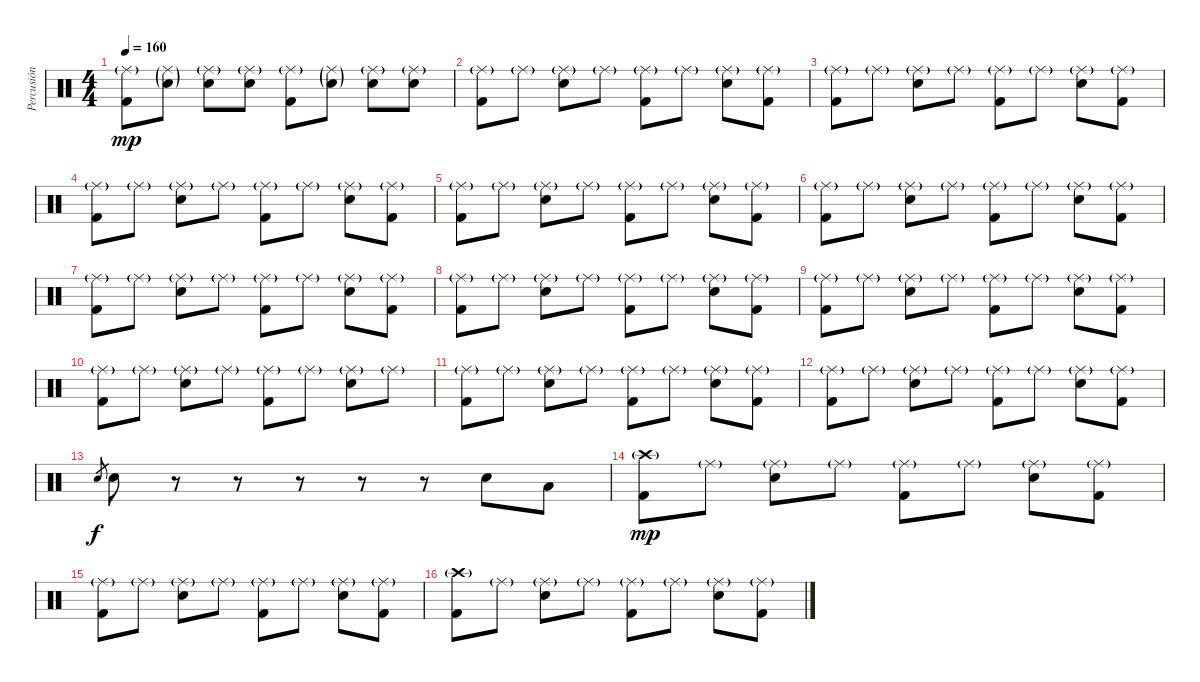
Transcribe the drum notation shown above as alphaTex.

\track ("Percusión" "Percusión") {instrument percussion}
\staff {score}
\articulation defaults
\ts (4 4)
\tempo 160
\clef neutral
\ks c
("Ride (middle)"{g} "Kick (hit) 2").8{dy mp} ("Ride (middle)"{g} "Electric Snare (hit)"{g}).8 ("Ride (middle)"{g} "Electric Snare (hit)").8 ("Ride (middle)"{g} "Electric Snare (hit)").8 ("Ride (middle)"{g} "Kick (hit) 2").8 ("Ride (middle)"{g} "Electric Snare (hit)"{g}).8 ("Ride (middle)"{g} "Electric Snare (hit)").8 ("Ride (middle)"{g} "Electric Snare (hit)").8 |
("Ride (middle)"{g} "Kick (hit) 2").8 "Ride (middle)"{g}.8 ("Ride (middle)"{g} "Electric Snare (hit)").8 "Ride (middle)"{g}.8 ("Ride (middle)"{g} "Kick (hit) 2").8 "Ride (middle)"{g}.8 ("Ride (middle)"{g} "Electric Snare (hit)").8 ("Ride (middle)"{g} "Kick (hit) 2").8 |
("Ride (middle)"{g} "Kick (hit) 2").8 "Ride (middle)"{g}.8 ("Ride (middle)"{g} "Electric Snare (hit)").8 "Ride (middle)"{g}.8 ("Ride (middle)"{g} "Kick (hit) 2").8 "Ride (middle)"{g}.8 ("Ride (middle)"{g} "Electric Snare (hit)").8 ("Ride (middle)"{g} "Kick (hit) 2").8 |
("Ride (middle)"{g} "Kick (hit) 2").8 "Ride (middle)"{g}.8 ("Ride (middle)"{g} "Electric Snare (hit)").8 "Ride (middle)"{g}.8 ("Ride (middle)"{g} "Kick (hit) 2").8 "Ride (middle)"{g}.8 ("Ride (middle)"{g} "Electric Snare (hit)").8 ("Ride (middle)"{g} "Kick (hit) 2").8 |
("Ride (middle)"{g} "Kick (hit) 2").8 "Ride (middle)"{g}.8 ("Ride (middle)"{g} "Electric Snare (hit)").8 "Ride (middle)"{g}.8 ("Ride (middle)"{g} "Kick (hit) 2").8 "Ride (middle)"{g}.8 ("Ride (middle)"{g} "Electric Snare (hit)").8 ("Ride (middle)"{g} "Kick (hit) 2").8 |
("Ride (middle)"{g} "Kick (hit) 2").8 "Ride (middle)"{g}.8 ("Ride (middle)"{g} "Electric Snare (hit)").8 "Ride (middle)"{g}.8 ("Ride (middle)"{g} "Kick (hit) 2").8 "Ride (middle)"{g}.8 ("Ride (middle)"{g} "Electric Snare (hit)").8 ("Ride (middle)"{g} "Kick (hit) 2").8 |
("Ride (middle)"{g} "Kick (hit) 2").8 "Ride (middle)"{g}.8 ("Ride (middle)"{g} "Electric Snare (hit)").8 "Ride (middle)"{g}.8 ("Ride (middle)"{g} "Kick (hit) 2").8 "Ride (middle)"{g}.8 ("Ride (middle)"{g} "Electric Snare (hit)").8 ("Ride (middle)"{g} "Kick (hit) 2").8 |
("Ride (middle)"{g} "Kick (hit) 2").8 "Ride (middle)"{g}.8 ("Ride (middle)"{g} "Electric Snare (hit)").8 "Ride (middle)"{g}.8 ("Ride (middle)"{g} "Kick (hit) 2").8 "Ride (middle)"{g}.8 ("Ride (middle)"{g} "Electric Snare (hit)").8 ("Ride (middle)"{g} "Kick (hit) 2").8 |
("Ride (middle)"{g} "Kick (hit) 2").8 "Ride (middle)"{g}.8 ("Ride (middle)"{g} "Electric Snare (hit)").8 "Ride (middle)"{g}.8 ("Ride (middle)"{g} "Kick (hit) 2").8 "Ride (middle)"{g}.8 ("Ride (middle)"{g} "Electric Snare (hit)").8 ("Ride (middle)"{g} "Kick (hit) 2").8 |
("Ride (middle)"{g} "Kick (hit) 2").8 "Ride (middle)"{g}.8 ("Ride (middle)"{g} "Electric Snare (hit)").8 "Ride (middle)"{g}.8 ("Ride (middle)"{g} "Kick (hit) 2").8 "Ride (middle)"{g}.8 ("Ride (middle)"{g} "Electric Snare (hit)").8 "Ride (middle)"{g}.8 |
("Ride (middle)"{g} "Kick (hit) 2").8 "Ride (middle)"{g}.8 ("Ride (middle)"{g} "Electric Snare (hit)").8 "Ride (middle)"{g}.8 ("Ride (middle)"{g} "Kick (hit) 2").8 "Ride (middle)"{g}.8 ("Ride (middle)"{g} "Electric Snare (hit)").8 ("Ride (middle)"{g} "Kick (hit) 2").8 |
("Ride (middle)"{g} "Kick (hit) 2").8 "Ride (middle)"{g}.8 ("Ride (middle)"{g} "Electric Snare (hit)").8 "Ride (middle)"{g}.8 ("Ride (middle)"{g} "Kick (hit) 2").8 "Ride (middle)"{g}.8 ("Ride (middle)"{g} "Electric Snare (hit)").8 ("Ride (middle)"{g} "Kick (hit) 2").8 |
"Electric Snare (hit)".8{gr dy f} "Electric Snare (hit)".8 r.8 r.8 r.8 r.8 r.8 "Electric Snare (hit)".8 "Low Tom (hit)".8 |
("Crash high (hit)"{g} "Kick (hit) 2").8{dy mp} "Ride (middle)"{g}.8 ("Ride (middle)"{g} "Electric Snare (hit)").8 "Ride (middle)"{g}.8 ("Ride (middle)"{g} "Kick (hit) 2").8 "Ride (middle)"{g}.8 ("Ride (middle)"{g} "Electric Snare (hit)").8 ("Ride (middle)"{g} "Kick (hit) 2").8 |
("Ride (middle)"{g} "Kick (hit) 2").8 "Ride (middle)"{g}.8 ("Ride (middle)"{g} "Electric Snare (hit)").8 "Ride (middle)"{g}.8 ("Ride (middle)"{g} "Kick (hit) 2").8 "Ride (middle)"{g}.8 ("Ride (middle)"{g} "Electric Snare (hit)").8 ("Ride (middle)"{g} "Kick (hit) 2").8 |
("Crash high (hit)"{g} "Kick (hit) 2").8 "Ride (middle)"{g}.8 ("Ride (middle)"{g} "Electric Snare (hit)").8 "Ride (middle)"{g}.8 ("Ride (middle)"{g} "Kick (hit) 2").8 "Ride (middle)"{g}.8 ("Ride (middle)"{g} "Electric Snare (hit)").8 ("Ride (middle)"{g} "Kick (hit) 2").8
